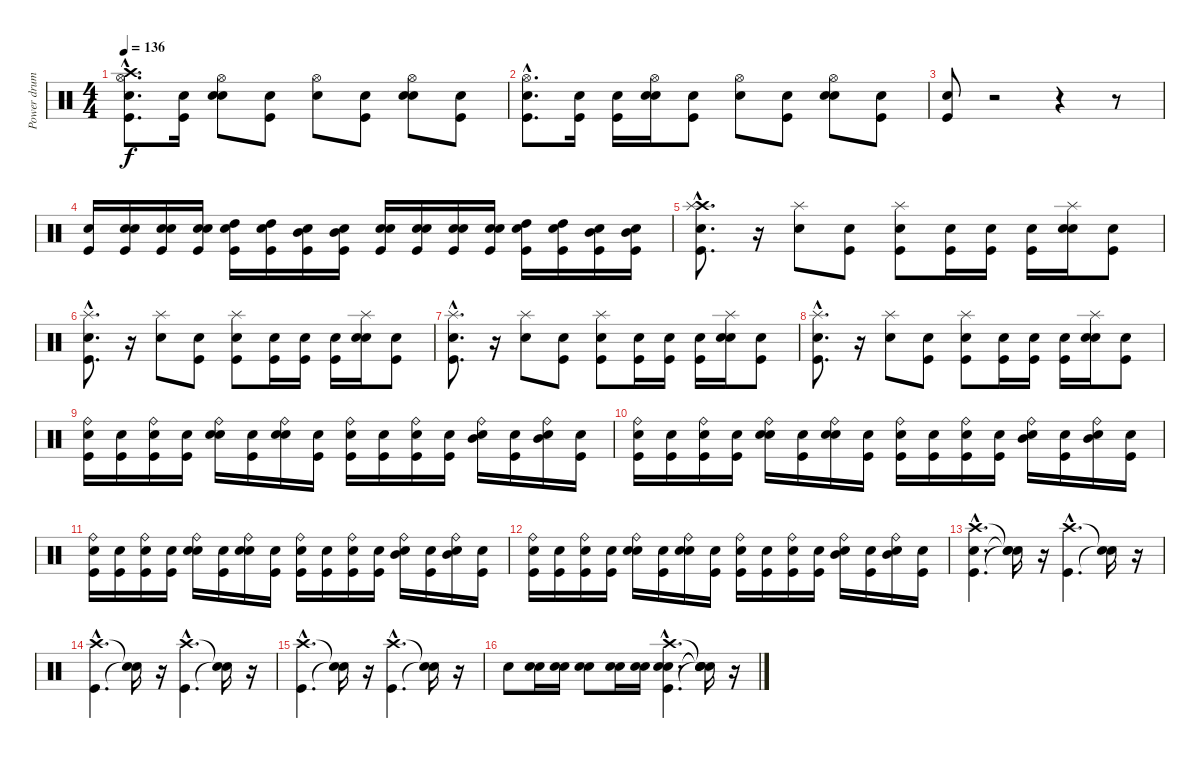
\track ("Power drums" "Power drum") {instrument percussion}
\staff {score}
\articulation defaults
\ts (4 4)
\tempo 136
\clef neutral
\ks c
("Snare (hit)"{hac} "Kick (hit)"{hac} "Hi-Hat (open)"{hac} "Crash high (hit)"{hac}).8{d dy f} ("Snare (hit)" "Kick (hit)").16 ("Snare (hit)" "Snare (hit) 2" "Hi-Hat (open)").8 ("Snare (hit)" "Kick (hit)").8 ("Snare (hit)" "Hi-Hat (open)").8 ("Snare (hit)" "Kick (hit)").8 ("Snare (hit)" "Snare (hit) 2" "Hi-Hat (open)").8 ("Snare (hit)" "Kick (hit)").8 |
("Snare (hit)"{hac} "Kick (hit)"{hac} "Hi-Hat (open)"{hac}).8{d} ("Snare (hit)" "Kick (hit)").16 ("Snare (hit)" "Kick (hit)").16 ("Snare (hit)" "Snare (hit) 2" "Hi-Hat (open)").16 ("Snare (hit)" "Kick (hit)").8 ("Snare (hit)" "Hi-Hat (open)").8 ("Snare (hit)" "Kick (hit)").8 ("Snare (hit)" "Snare (hit) 2" "Hi-Hat (open)").8 ("Snare (hit)" "Kick (hit)").8 |
("Snare (hit)" "Kick (hit)").8 r.2 r.4 r.8 |
("Kick (hit)" "Snare (hit) 2").16 ("Snare (hit)" "Kick (hit)" "Snare (hit) 2").16 ("Snare (hit)" "Kick (hit)" "Snare (hit) 2").16 ("Snare (hit)" "Kick (hit)" "Snare (hit) 2").16 ("Snare (hit)" "Kick (hit)" "High Tom (hit)").16 ("Snare (hit)" "Kick (hit)" "High Tom (hit)").16 ("Snare (hit)" "Kick (hit)" "Mid Tom (hit)").16 ("Snare (hit)" "Kick (hit)" "Mid Tom (hit)").16 ("Snare (hit)" "Kick (hit)" "Snare (hit) 2").16 ("Snare (hit)" "Kick (hit)" "Snare (hit) 2").16 ("Snare (hit)" "Kick (hit)" "Snare (hit) 2").16 ("Snare (hit)" "Kick (hit)" "Snare (hit) 2").16 ("Snare (hit)" "Kick (hit)" "High Tom (hit)").16 ("Snare (hit)" "Kick (hit)" "High Tom (hit)").16 ("Snare (hit)" "Kick (hit)" "Mid Tom (hit)").16 ("Snare (hit)" "Kick (hit)" "Mid Tom (hit)").16 |
("Snare (hit)"{hac} "Kick (hit)"{hac} "Crash high (hit)"{hac} "Splash (hit)"{hac}).8{d} r.16 ("Snare (hit) 2" "Splash (hit)").8 ("Snare (hit)" "Kick (hit)").8 ("Snare (hit)" "Kick (hit)" "Splash (hit)").8 ("Snare (hit)" "Kick (hit)").16 ("Snare (hit)" "Kick (hit)").16 ("Snare (hit)" "Kick (hit)").16 ("Snare (hit)" "Snare (hit) 2" "Splash (hit)").16 ("Snare (hit)" "Kick (hit)").8 |
("Snare (hit)"{hac} "Kick (hit)"{hac} "Splash (hit)"{hac}).8{d} r.16 ("Snare (hit) 2" "Splash (hit)").8 ("Snare (hit)" "Kick (hit)").8 ("Snare (hit)" "Kick (hit)" "Splash (hit)").8 ("Snare (hit)" "Kick (hit)").16 ("Snare (hit)" "Kick (hit)").16 ("Snare (hit)" "Kick (hit)").16 ("Snare (hit)" "Snare (hit) 2" "Splash (hit)").16 ("Snare (hit)" "Kick (hit)").8 |
("Snare (hit)"{hac} "Kick (hit)"{hac} "Splash (hit)"{hac}).8{d} r.16 ("Snare (hit) 2" "Splash (hit)").8 ("Snare (hit)" "Kick (hit)").8 ("Snare (hit)" "Kick (hit)" "Splash (hit)").8 ("Snare (hit)" "Kick (hit)").16 ("Snare (hit)" "Kick (hit)").16 ("Snare (hit)" "Kick (hit)").16 ("Snare (hit)" "Snare (hit) 2" "Splash (hit)").16 ("Snare (hit)" "Kick (hit)").8 |
("Snare (hit)"{hac} "Kick (hit)"{hac} "Splash (hit)"{hac}).8{d} r.16 ("Snare (hit) 2" "Splash (hit)").8 ("Snare (hit)" "Kick (hit)").8 ("Snare (hit)" "Kick (hit)" "Splash (hit)").8 ("Snare (hit)" "Kick (hit)").16 ("Snare (hit)" "Kick (hit)").16 ("Snare (hit)" "Kick (hit)").16 ("Snare (hit)" "Snare (hit) 2" "Splash (hit)").16 ("Snare (hit)" "Kick (hit)").8 |
("Snare (hit)" "Kick (hit)" "Ride (bell)").16 ("Snare (hit)" "Kick (hit)").16 ("Snare (hit)" "Kick (hit)" "Ride (bell)").16 ("Snare (hit)" "Kick (hit)").16 ("Snare (hit)" "Snare (hit) 2" "Ride (bell)").16 ("Snare (hit)" "Kick (hit)").16 ("Snare (hit)" "Snare (hit) 2" "Ride (bell)").16 ("Snare (hit)" "Kick (hit)").16 ("Snare (hit)" "Kick (hit)" "Ride (bell)").16 ("Snare (hit)" "Kick (hit)").16 ("Snare (hit)" "Kick (hit)" "Ride (bell)").16 ("Snare (hit)" "Kick (hit)").16 ("Snare (hit)" "Mid Tom (hit)" "Ride (bell)").16 ("Snare (hit)" "Kick (hit)").16 ("Snare (hit)" "Mid Tom (hit)" "Ride (bell)").16 ("Snare (hit)" "Kick (hit)").16 |
("Snare (hit)" "Kick (hit)" "Ride (bell)").16 ("Snare (hit)" "Kick (hit)").16 ("Snare (hit)" "Kick (hit)" "Ride (bell)").16 ("Snare (hit)" "Kick (hit)").16 ("Snare (hit)" "Snare (hit) 2" "Ride (bell)").16 ("Snare (hit)" "Kick (hit)").16 ("Snare (hit)" "Snare (hit) 2" "Ride (bell)").16 ("Snare (hit)" "Kick (hit)").16 ("Snare (hit)" "Kick (hit)" "Ride (bell)").16 ("Snare (hit)" "Kick (hit)").16 ("Snare (hit)" "Kick (hit)" "Ride (bell)").16 ("Snare (hit)" "Kick (hit)").16 ("Snare (hit)" "Mid Tom (hit)" "Ride (bell)").16 ("Snare (hit)" "Kick (hit)").16 ("Snare (hit)" "Mid Tom (hit)" "Ride (bell)").16 ("Snare (hit)" "Kick (hit)").16 |
("Snare (hit)" "Kick (hit)" "Ride (bell)").16 ("Snare (hit)" "Kick (hit)").16 ("Snare (hit)" "Kick (hit)" "Ride (bell)").16 ("Snare (hit)" "Kick (hit)").16 ("Snare (hit)" "Snare (hit) 2" "Ride (bell)").16 ("Snare (hit)" "Kick (hit)").16 ("Snare (hit)" "Snare (hit) 2" "Ride (bell)").16 ("Snare (hit)" "Kick (hit)").16 ("Snare (hit)" "Kick (hit)" "Ride (bell)").16 ("Snare (hit)" "Kick (hit)").16 ("Snare (hit)" "Kick (hit)" "Ride (bell)").16 ("Snare (hit)" "Kick (hit)").16 ("Snare (hit)" "Mid Tom (hit)" "Ride (bell)").16 ("Snare (hit)" "Kick (hit)").16 ("Snare (hit)" "Mid Tom (hit)" "Ride (bell)").16 ("Snare (hit)" "Kick (hit)").16 |
("Snare (hit)" "Kick (hit)" "Ride (bell)").16 ("Snare (hit)" "Kick (hit)").16 ("Snare (hit)" "Kick (hit)" "Ride (bell)").16 ("Snare (hit)" "Kick (hit)").16 ("Snare (hit)" "Snare (hit) 2" "Ride (bell)").16 ("Snare (hit)" "Kick (hit)").16 ("Snare (hit)" "Snare (hit) 2" "Ride (bell)").16 ("Snare (hit)" "Kick (hit)").16 ("Snare (hit)" "Kick (hit)" "Ride (bell)").16 ("Snare (hit)" "Kick (hit)").16 ("Snare (hit)" "Kick (hit)" "Ride (bell)").16 ("Snare (hit)" "Kick (hit)").16 ("Snare (hit)" "Mid Tom (hit)" "Ride (bell)").16 ("Snare (hit)" "Kick (hit)").16 ("Snare (hit)" "Mid Tom (hit)" "Ride (bell)").16 ("Snare (hit)" "Kick (hit)").16 |
("Snare (hit)"{hac} "Kick (hit)"{hac} "Crash high (hit)"{hac}).4{d} ("Snare (hit)"{t} "Snare (hit)"{t} "Snare (hit)"{t}).16 r.16 ("Kick (hit)"{hac} "Crash high (hit)"{hac}).4{d} ("Snare (hit)"{t} "Snare (hit)"{t}).16 r.16 |
("Kick (hit)"{hac} "Crash high (hit)"{hac}).4{d} ("Snare (hit)"{t} "Snare (hit)"{t}).16 r.16 ("Kick (hit)"{hac} "Crash high (hit)"{hac}).4{d} ("Snare (hit)"{t} "Snare (hit)"{t}).16 r.16 |
("Kick (hit)"{hac} "Crash high (hit)"{hac}).4{d} ("Snare (hit)"{t} "Snare (hit)"{t}).16 r.16 ("Kick (hit)"{hac} "Crash high (hit)"{hac}).4{d} ("Snare (hit)"{t} "Snare (hit)"{t}).16 r.16 |
"Snare (hit) 2".8 ("Snare (hit)" "Snare (hit) 2").16 ("Snare (hit)" "Snare (hit) 2").16 ("Snare (hit)" "Snare (hit) 2").8 ("Snare (hit)" "Snare (hit) 2").16 ("Snare (hit)" "Snare (hit) 2").16 ("Snare (hit)"{hac} "Kick (hit)"{hac} "Snare (hit) 2"{hac} "Crash high (hit)"{hac}).4{d} ("Snare (hit)"{t} "Snare (hit)"{t} "Snare (hit)"{t} "Snare (hit)"{t}).16 r.16
